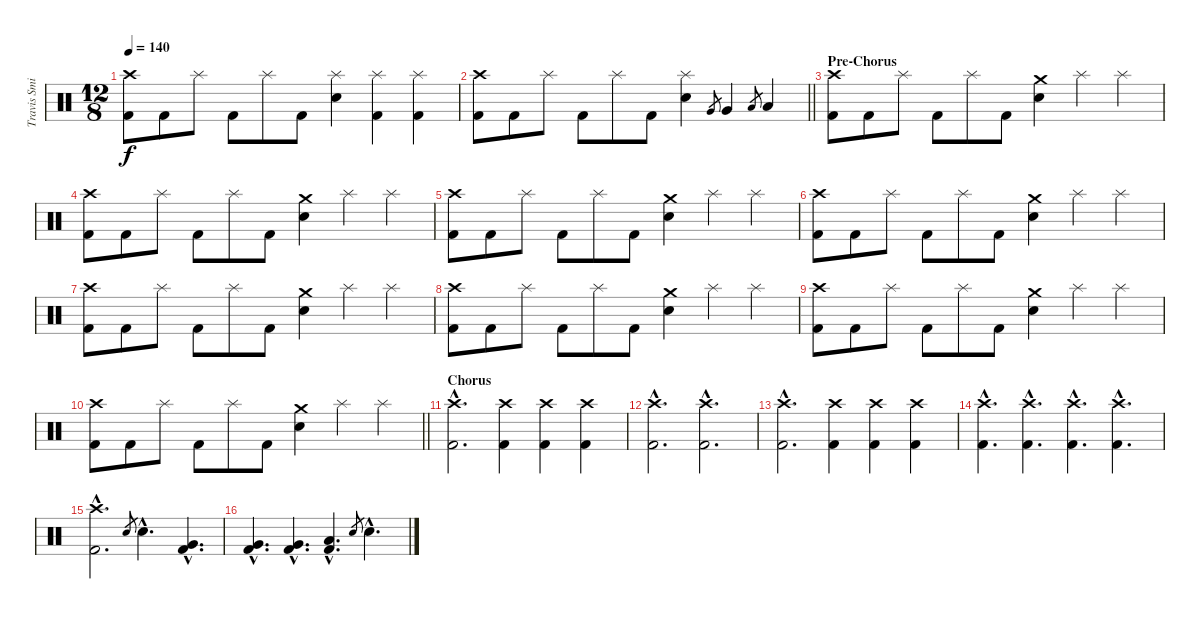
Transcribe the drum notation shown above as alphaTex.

\track ("Travis Smith" "Travis Smi") {instrument percussion}
\staff {score}
\articulation defaults
\ts (12 8)
\tempo 140
\clef neutral
\ks c
("Crash high (hit)" "Kick (hit) 2").8{dy f} "Kick (hit) 2".8 "Splash (hit)".8 "Kick (hit) 2".8 "Splash (hit)".8 "Kick (hit) 2".8 ("Splash (hit)" "Electric Snare (hit)").4 ("Splash (hit)" "Kick (hit) 2").4 ("Splash (hit)" "Kick (hit) 2").4 |
\barLineRight lightlight
("Crash high (hit)" "Kick (hit) 2").8 "Kick (hit) 2".8 "Splash (hit)".8 "Kick (hit) 2".8 "Splash (hit)".8 "Kick (hit) 2".8 ("Splash (hit)" "Electric Snare (hit)").4 "Very Low Tom (hit)".8{gr} "Very Low Tom (hit)".4 "Low Floor Tom (hit)".8{gr} "Low Floor Tom (hit)".4 |
\section ("" "Pre-Chorus")
("Crash high (hit)" "Kick (hit) 2").8 "Kick (hit) 2".8 "Splash (hit)".8 "Kick (hit) 2".8 "Splash (hit)".8 "Kick (hit) 2".8 ("Crash medium (hit)" "Electric Snare (hit)").4 "Splash (hit)".4 "Splash (hit)".4 |
("Crash high (hit)" "Kick (hit) 2").8 "Kick (hit) 2".8 "Splash (hit)".8 "Kick (hit) 2".8 "Splash (hit)".8 "Kick (hit) 2".8 ("Crash medium (hit)" "Electric Snare (hit)").4 "Splash (hit)".4 "Splash (hit)".4 |
("Crash high (hit)" "Kick (hit) 2").8 "Kick (hit) 2".8 "Splash (hit)".8 "Kick (hit) 2".8 "Splash (hit)".8 "Kick (hit) 2".8 ("Crash medium (hit)" "Electric Snare (hit)").4 "Splash (hit)".4 "Splash (hit)".4 |
("Crash high (hit)" "Kick (hit) 2").8 "Kick (hit) 2".8 "Splash (hit)".8 "Kick (hit) 2".8 "Splash (hit)".8 "Kick (hit) 2".8 ("Crash medium (hit)" "Electric Snare (hit)").4 "Splash (hit)".4 "Splash (hit)".4 |
("Crash high (hit)" "Kick (hit) 2").8 "Kick (hit) 2".8 "Splash (hit)".8 "Kick (hit) 2".8 "Splash (hit)".8 "Kick (hit) 2".8 ("Crash medium (hit)" "Electric Snare (hit)").4 "Splash (hit)".4 "Splash (hit)".4 |
("Crash high (hit)" "Kick (hit) 2").8 "Kick (hit) 2".8 "Splash (hit)".8 "Kick (hit) 2".8 "Splash (hit)".8 "Kick (hit) 2".8 ("Crash medium (hit)" "Electric Snare (hit)").4 "Splash (hit)".4 "Splash (hit)".4 |
("Crash high (hit)" "Kick (hit) 2").8 "Kick (hit) 2".8 "Splash (hit)".8 "Kick (hit) 2".8 "Splash (hit)".8 "Kick (hit) 2".8 ("Crash medium (hit)" "Electric Snare (hit)").4 "Splash (hit)".4 "Splash (hit)".4 |
\barLineRight lightlight
("Crash high (hit)" "Kick (hit) 2").8 "Kick (hit) 2".8 "Splash (hit)".8 "Kick (hit) 2".8 "Splash (hit)".8 "Kick (hit) 2".8 ("Crash medium (hit)" "Electric Snare (hit)").4 "Splash (hit)".4 "Splash (hit)".4 |
\section ("" "Chorus")
("Crash high (hit)"{hac} "Kick (hit) 2"{hac}).2{d} ("Crash high (hit)" "Kick (hit) 2").4 ("Crash high (hit)" "Kick (hit) 2").4 ("Crash high (hit)" "Kick (hit) 2").4 |
("Crash high (hit)"{hac} "Kick (hit) 2"{hac}).2{d} ("Crash high (hit)"{hac} "Kick (hit) 2"{hac}).2{d} |
("Crash high (hit)"{hac} "Kick (hit) 2"{hac}).2{d} ("Crash high (hit)" "Kick (hit) 2").4 ("Crash high (hit)" "Kick (hit) 2").4 ("Crash high (hit)" "Kick (hit) 2").4 |
("Crash high (hit)"{hac} "Kick (hit) 2"{hac}).4{d} ("Crash high (hit)"{hac} "Kick (hit) 2"{hac}).4{d} ("Crash high (hit)"{hac} "Kick (hit) 2"{hac}).4{d} ("Crash high (hit)"{hac} "Kick (hit) 2"{hac}).4{d} |
("Crash high (hit)"{hac} "Kick (hit) 2"{hac}).2{d} "Electric Snare (hit)".8{gr} "Electric Snare (hit)"{hac}.4{d} ("Very Low Tom (hit)"{hac} "Kick (hit) 2"{hac}).4{d} |
("Very Low Tom (hit)"{hac} "Kick (hit) 2"{hac}).4{d} ("Very Low Tom (hit)"{hac} "Kick (hit) 2"{hac}).4{d} ("Low Floor Tom (hit)"{hac} "Kick (hit) 2"{hac}).4{d} "Electric Snare (hit)".8{gr} "Electric Snare (hit)"{hac}.4{d}
